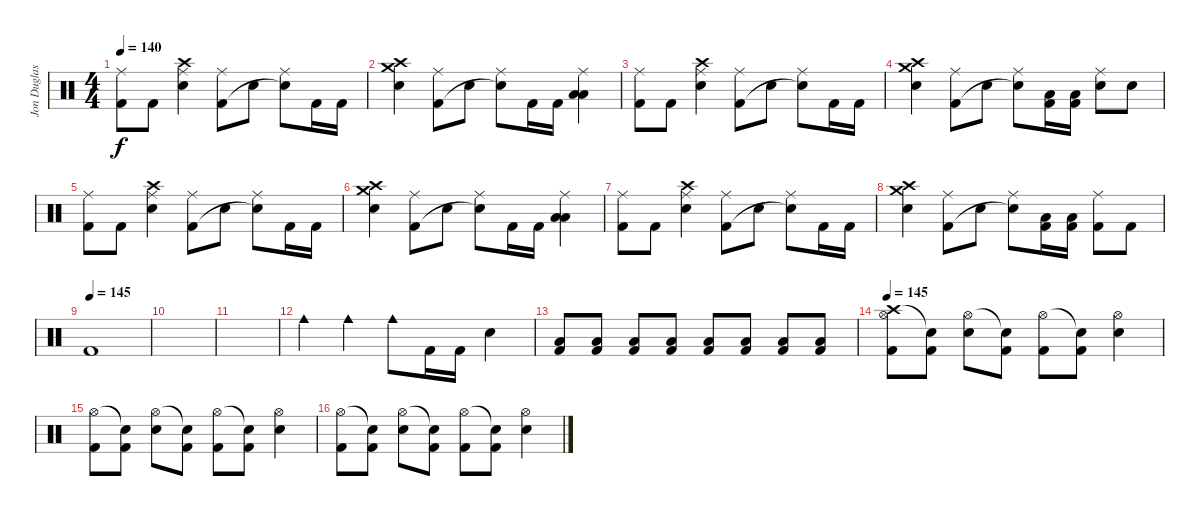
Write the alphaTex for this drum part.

\track ("Jon Duglas (Drums)" "Jon Duglas") {instrument percussion}
\staff {score}
\articulation defaults
\ts (4 4)
\tempo 140
\clef neutral
\ks c
("Ride (middle)" "Kick (hit) 2").8{dy f} "Kick (hit) 2".8 ("Crash high (hit)" "Ride (middle)" "Electric Snare (hit)").4 ("Ride (middle)" "Kick (hit) 2").8 "Electric Snare (hit)".8 ("Ride (middle)" "Snare (hit)"{t}).8 "Kick (hit) 2".16 "Kick (hit) 2".16 |
("Crash high (hit)" "Electric Snare (hit)" "Crash medium (hit)").4 ("Ride (middle)" "Kick (hit) 2").8 "Electric Snare (hit)".8 ("Ride (middle)" "Snare (hit)"{t}).8 "Kick (hit) 2".16 "Kick (hit) 2".16 ("Ride (middle)" "Low Tom (hit)" "Low Tom (hit)").4 |
("Ride (middle)" "Kick (hit) 2").8 "Kick (hit) 2".8 ("Crash high (hit)" "Ride (middle)" "Electric Snare (hit)").4 ("Ride (middle)" "Kick (hit) 2").8 "Electric Snare (hit)".8 ("Ride (middle)" "Snare (hit)"{t}).8 "Kick (hit) 2".16 "Kick (hit) 2".16 |
("Crash high (hit)" "Electric Snare (hit)" "Crash medium (hit)").4 ("Ride (middle)" "Kick (hit) 2").8 "Electric Snare (hit)".8 ("Ride (middle)" "Snare (hit)"{t}).8 ("Low Floor Tom (hit)" "Kick (hit) 2").16 ("Low Floor Tom (hit)" "Kick (hit) 2").16 ("Ride (middle)" "Electric Snare (hit)").8 "Electric Snare (hit)".8 |
("Ride (middle)" "Kick (hit) 2").8 "Kick (hit) 2".8 ("Crash high (hit)" "Ride (middle)" "Electric Snare (hit)").4 ("Ride (middle)" "Kick (hit) 2").8 "Electric Snare (hit)".8 ("Ride (middle)" "Snare (hit)"{t}).8 "Kick (hit) 2".16 "Kick (hit) 2".16 |
("Crash high (hit)" "Electric Snare (hit)" "Crash medium (hit)").4 ("Ride (middle)" "Kick (hit) 2").8 "Electric Snare (hit)".8 ("Ride (middle)" "Snare (hit)"{t}).8 "Kick (hit) 2".16 "Kick (hit) 2".16 ("Ride (middle)" "Low Tom (hit)" "Low Tom (hit)").4 |
("Ride (middle)" "Kick (hit) 2").8 "Kick (hit) 2".8 ("Crash high (hit)" "Ride (middle)" "Electric Snare (hit)").4 ("Ride (middle)" "Kick (hit) 2").8 "Electric Snare (hit)".8 ("Ride (middle)" "Snare (hit)"{t}).8 "Kick (hit) 2".16 "Kick (hit) 2".16 |
("Crash high (hit)" "Electric Snare (hit)" "Crash medium (hit)").4 ("Ride (middle)" "Kick (hit) 2").8 "Electric Snare (hit)".8 ("Ride (middle)" "Snare (hit)"{t}).8 ("Low Floor Tom (hit)" "Kick (hit) 2").16 ("Low Floor Tom (hit)" "Kick (hit) 2").16 ("Ride (middle)" "Kick (hit) 2").8 "Kick (hit) 2".8 |
\tempo (145)
"Kick (hit) 2".1 |
|
|
"Cowbell medium (hit)".4 "Cowbell medium (hit)".4 "Cowbell medium (hit)".8 "Kick (hit) 2".16 "Kick (hit) 2".16 "Electric Snare (hit)".4 |
("Kick (hit) 2" "Low Floor Tom (hit)").8 ("Kick (hit) 2" "Low Floor Tom (hit)").8 ("Kick (hit) 2" "Low Floor Tom (hit)").8 ("Kick (hit) 2" "Low Floor Tom (hit)").8 ("Kick (hit) 2" "Low Floor Tom (hit)").8 ("Kick (hit) 2" "Low Floor Tom (hit)").8 ("Kick (hit) 2" "Low Floor Tom (hit)").8 ("Kick (hit) 2" "Low Floor Tom (hit)").8 |
\tempo 145
("Kick (hit) 2" "Crash high (hit)" "Hi-Hat (open)").8 ("Kick (hit) 2" "Snare (hit)"{t}).8 ("Electric Snare (hit)" "Hi-Hat (open)").8 ("Kick (hit) 2" "Snare (hit)"{t}).8 ("Kick (hit) 2" "Hi-Hat (open)").8 ("Kick (hit) 2" "Snare (hit)"{t}).8 ("Electric Snare (hit)" "Hi-Hat (open)").4 |
("Kick (hit) 2" "Hi-Hat (open)").8 ("Kick (hit) 2" "Snare (hit)"{t}).8 ("Electric Snare (hit)" "Hi-Hat (open)").8 ("Kick (hit) 2" "Snare (hit)"{t}).8 ("Kick (hit) 2" "Hi-Hat (open)").8 ("Kick (hit) 2" "Snare (hit)"{t}).8 ("Electric Snare (hit)" "Hi-Hat (open)").4 |
("Kick (hit) 2" "Hi-Hat (open)").8 ("Kick (hit) 2" "Snare (hit)"{t}).8 ("Electric Snare (hit)" "Hi-Hat (open)").8 ("Kick (hit) 2" "Snare (hit)"{t}).8 ("Kick (hit) 2" "Hi-Hat (open)").8 ("Kick (hit) 2" "Snare (hit)"{t}).8 ("Electric Snare (hit)" "Hi-Hat (open)").4
